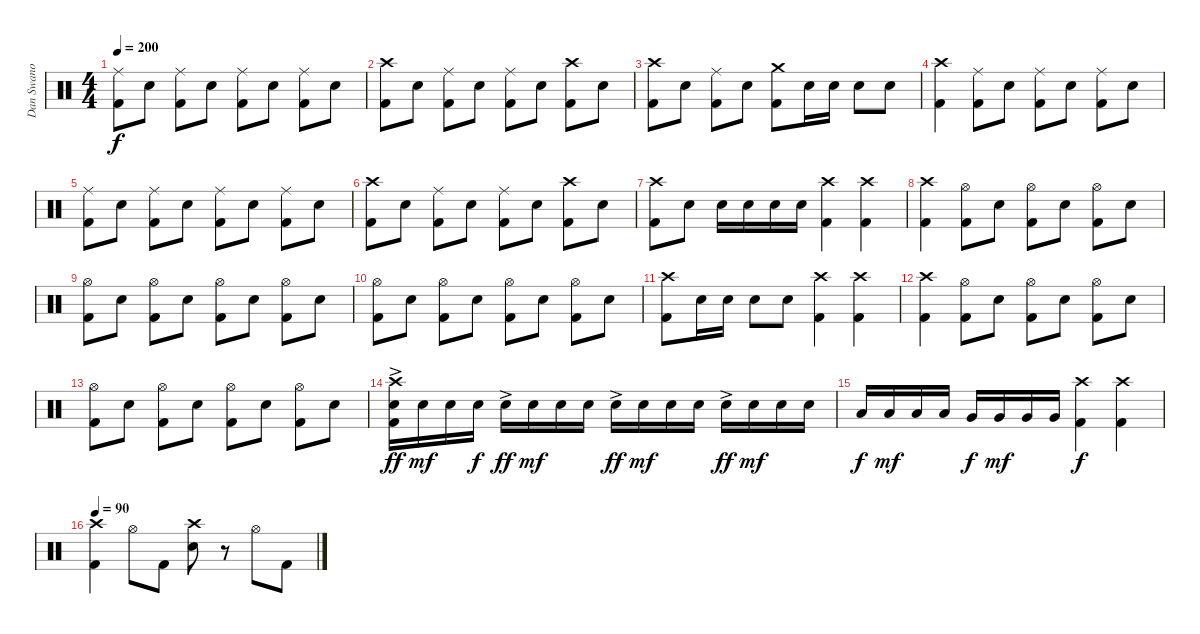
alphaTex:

\track ("Dan Swano" "Dan Swano") {instrument percussion}
\staff {score}
\articulation defaults
\ts (4 4)
\tempo 200
\clef neutral
\ks c
("Ride (middle)" "Kick (hit) 2").8{dy f} "Electric Snare (hit)".8 ("Ride (middle)" "Kick (hit) 2").8 "Electric Snare (hit)".8 ("Ride (middle)" "Kick (hit) 2").8 "Electric Snare (hit)".8 ("Ride (middle)" "Kick (hit) 2").8 "Electric Snare (hit)".8 |
("Crash high (hit)" "Kick (hit) 2").8 "Electric Snare (hit)".8 ("Ride (middle)" "Kick (hit) 2").8 "Electric Snare (hit)".8 ("Ride (middle)" "Kick (hit) 2").8 "Electric Snare (hit)".8 ("Crash high (hit)" "Kick (hit) 2").8 "Electric Snare (hit)".8 |
("Crash high (hit)" "Kick (hit) 2").8 "Electric Snare (hit)".8 ("Ride (middle)" "Kick (hit) 2").8 "Electric Snare (hit)".8 ("Crash medium (hit)" "Kick (hit) 2").8 "Electric Snare (hit)".16 "Electric Snare (hit)".16 "Electric Snare (hit)".8 "Electric Snare (hit)".8 |
("Crash high (hit)" "Kick (hit) 2").4 ("Ride (middle)" "Kick (hit) 2").8 "Electric Snare (hit)".8 ("Ride (middle)" "Kick (hit) 2").8 "Electric Snare (hit)".8 ("Ride (middle)" "Kick (hit) 2").8 "Electric Snare (hit)".8 |
("Ride (middle)" "Kick (hit) 2").8 "Electric Snare (hit)".8 ("Ride (middle)" "Kick (hit) 2").8 "Electric Snare (hit)".8 ("Ride (middle)" "Kick (hit) 2").8 "Electric Snare (hit)".8 ("Ride (middle)" "Kick (hit) 2").8 "Electric Snare (hit)".8 |
("Crash high (hit)" "Kick (hit) 2").8 "Electric Snare (hit)".8 ("Ride (middle)" "Kick (hit) 2").8 "Electric Snare (hit)".8 ("Ride (middle)" "Kick (hit) 2").8 "Electric Snare (hit)".8 ("Crash high (hit)" "Kick (hit) 2").8 "Electric Snare (hit)".8 |
("Crash high (hit)" "Kick (hit) 2").8 "Electric Snare (hit)".8 "Electric Snare (hit)".16 "Electric Snare (hit)".16 "Electric Snare (hit)".16 "Electric Snare (hit)".16 ("Crash high (hit)" "Kick (hit) 2").4 ("Crash high (hit)" "Kick (hit) 2").4 |
("Crash high (hit)" "Kick (hit) 2").4 ("Hi-Hat (open)" "Kick (hit) 2").8 "Electric Snare (hit)".8 ("Hi-Hat (open)" "Kick (hit) 2").8 "Electric Snare (hit)".8 ("Hi-Hat (open)" "Kick (hit) 2").8 "Electric Snare (hit)".8 |
("Hi-Hat (open)" "Kick (hit) 2").8 "Electric Snare (hit)".8 ("Hi-Hat (open)" "Kick (hit) 2").8 "Electric Snare (hit)".8 ("Hi-Hat (open)" "Kick (hit) 2").8 "Electric Snare (hit)".8 ("Hi-Hat (open)" "Kick (hit) 2").8 "Electric Snare (hit)".8 |
("Hi-Hat (open)" "Kick (hit) 2").8 "Electric Snare (hit)".8 ("Hi-Hat (open)" "Kick (hit) 2").8 "Electric Snare (hit)".8 ("Hi-Hat (open)" "Kick (hit) 2").8 "Electric Snare (hit)".8 ("Hi-Hat (open)" "Kick (hit) 2").8 "Electric Snare (hit)".8 |
("Crash high (hit)" "Kick (hit) 2").8 "Electric Snare (hit)".16 "Electric Snare (hit)".16 "Electric Snare (hit)".8 "Electric Snare (hit)".8 ("Crash high (hit)" "Kick (hit) 2").4 ("Crash high (hit)" "Kick (hit) 2").4 |
("Crash high (hit)" "Kick (hit) 2").4 ("Hi-Hat (open)" "Kick (hit) 2").8 "Electric Snare (hit)".8 ("Hi-Hat (open)" "Kick (hit) 2").8 "Electric Snare (hit)".8 ("Hi-Hat (open)" "Kick (hit) 2").8 "Electric Snare (hit)".8 |
("Hi-Hat (open)" "Kick (hit) 2").8 "Electric Snare (hit)".8 ("Hi-Hat (open)" "Kick (hit) 2").8 "Electric Snare (hit)".8 ("Hi-Hat (open)" "Kick (hit) 2").8 "Electric Snare (hit)".8 ("Hi-Hat (open)" "Kick (hit) 2").8 "Electric Snare (hit)".8 |
("Crash high (hit)" "Electric Snare (hit)"{ac} "Kick (hit) 2").16{dy ff} "Electric Snare (hit)".16{dy mf} "Electric Snare (hit)".16 "Electric Snare (hit)".16{dy f} "Electric Snare (hit)"{ac}.16{dy ff} "Electric Snare (hit)".16{dy mf} "Electric Snare (hit)".16 "Electric Snare (hit)".16 "Electric Snare (hit)"{ac}.16{dy ff} "Electric Snare (hit)".16{dy mf} "Electric Snare (hit)".16 "Electric Snare (hit)".16 "Electric Snare (hit)"{ac}.16{dy ff} "Electric Snare (hit)".16{dy mf} "Electric Snare (hit)".16 "Electric Snare (hit)".16 |
"Low Tom (hit)".16{dy f} "Low Tom (hit)".16{dy mf} "Low Tom (hit)".16 "Low Tom (hit)".16 "Very Low Tom (hit)".16{dy f} "Very Low Tom (hit)".16{dy mf} "Very Low Tom (hit)".16 "Very Low Tom (hit)".16 ("Crash high (hit)" "Kick (hit) 2").4{dy f} ("Crash high (hit)" "Kick (hit) 2").4 |
\tempo 90
("Crash high (hit)" "Kick (hit) 2").4 "Hi-Hat (open)".8 "Kick (hit) 2".8 ("Crash high (hit)" "Electric Snare (hit)").8 r.8 "Hi-Hat (open)".8 "Kick (hit) 2".8
